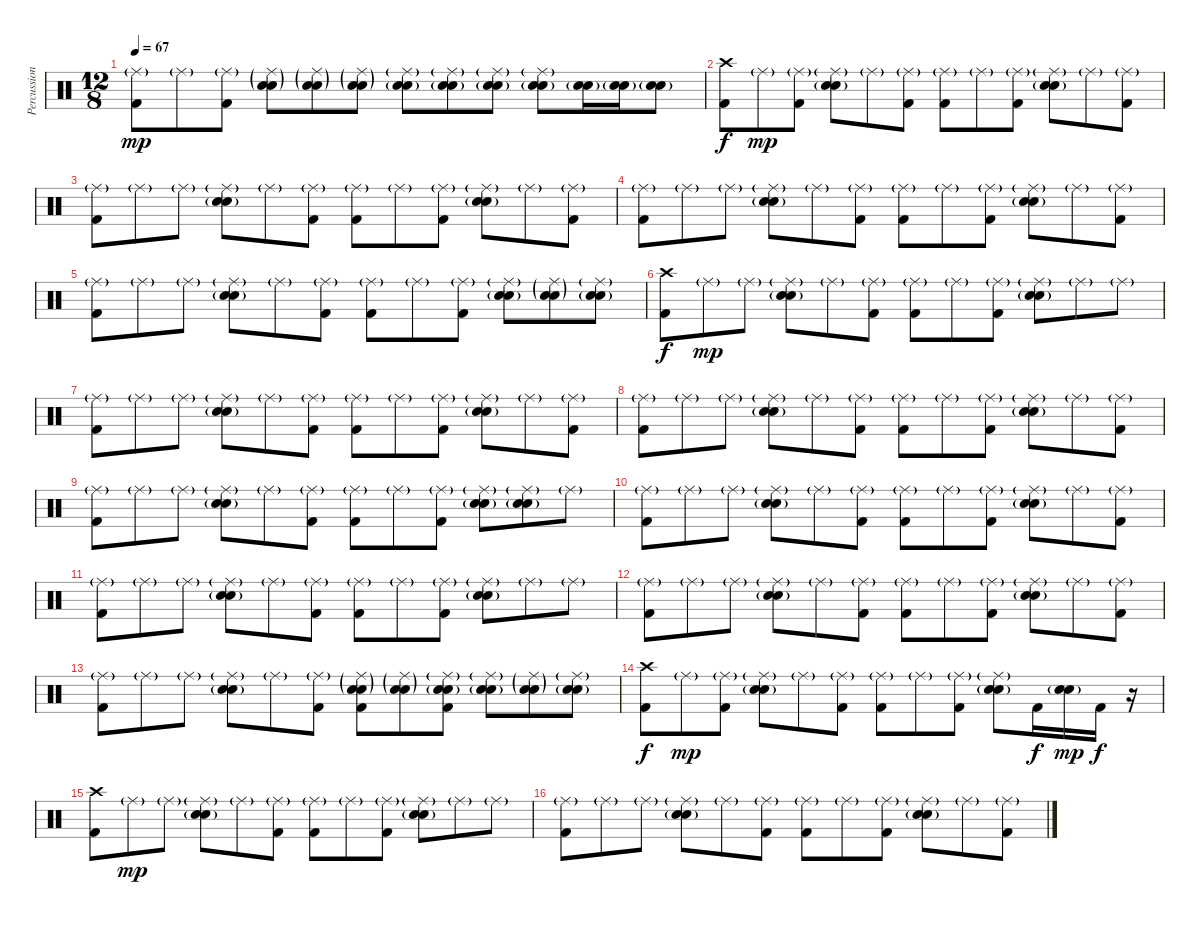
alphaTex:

\track ("Percussion" "Percussion") {instrument percussion}
\staff {score}
\articulation defaults
\ts (12 8)
\tempo 67
\clef neutral
\ks c
("Ride (middle)"{g} "Kick (hit) 2").8{dy mp} "Ride (middle)"{g}.8 ("Ride (middle)"{g} "Kick (hit) 2").8 ("Ride (middle)"{g} "Electric Snare (hit)"{g} "Snare (hit) 2"{g}).8 ("Ride (middle)"{g} "Electric Snare (hit)"{g} "Snare (hit) 2"{g}).8 ("Ride (middle)"{g} "Electric Snare (hit)"{g} "Snare (hit) 2"{g}).8 ("Ride (middle)"{g} "Electric Snare (hit)" "Snare (hit) 2"{g}).8 ("Ride (middle)"{g} "Electric Snare (hit)" "Snare (hit) 2"{g}).8 ("Ride (middle)"{g} "Electric Snare (hit)" "Snare (hit) 2"{g}).8 ("Ride (middle)"{g} "Electric Snare (hit)" "Snare (hit) 2"{g}).8 ("Electric Snare (hit)" "Snare (hit) 2"{g}).16 ("Electric Snare (hit)"{g} "Snare (hit) 2"{g}).16 ("Electric Snare (hit)" "Snare (hit) 2"{g}).8 |
("Crash high (hit)" "Kick (hit) 2").8{dy f} "Ride (middle)"{g}.8{dy mp} ("Ride (middle)"{g} "Kick (hit) 2").8 ("Ride (middle)"{g} "Electric Snare (hit)" "Snare (hit) 2"{g}).8 "Ride (middle)"{g}.8 ("Ride (middle)"{g} "Kick (hit) 2").8 ("Ride (middle)"{g} "Kick (hit) 2").8 "Ride (middle)"{g}.8 ("Ride (middle)"{g} "Kick (hit) 2").8 ("Ride (middle)"{g} "Electric Snare (hit)" "Snare (hit) 2"{g}).8 "Ride (middle)"{g}.8 ("Ride (middle)"{g} "Kick (hit) 2").8 |
("Ride (middle)"{g} "Kick (hit) 2").8 "Ride (middle)"{g}.8 "Ride (middle)"{g}.8 ("Ride (middle)"{g} "Electric Snare (hit)" "Snare (hit) 2"{g}).8 "Ride (middle)"{g}.8 ("Ride (middle)"{g} "Kick (hit) 2").8 ("Ride (middle)"{g} "Kick (hit) 2").8 "Ride (middle)"{g}.8 ("Ride (middle)"{g} "Kick (hit) 2").8 ("Ride (middle)"{g} "Electric Snare (hit)" "Snare (hit) 2"{g}).8 "Ride (middle)"{g}.8 ("Ride (middle)"{g} "Kick (hit) 2").8 |
("Ride (middle)"{g} "Kick (hit) 2").8 "Ride (middle)"{g}.8 "Ride (middle)"{g}.8 ("Ride (middle)"{g} "Electric Snare (hit)" "Snare (hit) 2"{g}).8 "Ride (middle)"{g}.8 ("Ride (middle)"{g} "Kick (hit) 2").8 ("Ride (middle)"{g} "Kick (hit) 2").8 "Ride (middle)"{g}.8 ("Ride (middle)"{g} "Kick (hit) 2").8 ("Ride (middle)"{g} "Electric Snare (hit)" "Snare (hit) 2"{g}).8 "Ride (middle)"{g}.8 ("Ride (middle)"{g} "Kick (hit) 2").8 |
("Ride (middle)"{g} "Kick (hit) 2").8 "Ride (middle)"{g}.8 "Ride (middle)"{g}.8 ("Ride (middle)"{g} "Electric Snare (hit)" "Snare (hit) 2"{g}).8 "Ride (middle)"{g}.8 ("Ride (middle)"{g} "Kick (hit) 2").8 ("Ride (middle)"{g} "Kick (hit) 2").8 "Ride (middle)"{g}.8 ("Ride (middle)"{g} "Kick (hit) 2").8 ("Ride (middle)"{g} "Electric Snare (hit)" "Snare (hit) 2"{g}).8 ("Ride (middle)"{g} "Electric Snare (hit)"{g} "Snare (hit) 2"{g}).8 ("Ride (middle)"{g} "Electric Snare (hit)" "Snare (hit) 2"{g}).8 |
("Crash high (hit)" "Kick (hit) 2").8{dy f} "Ride (middle)"{g}.8{dy mp} "Ride (middle)"{g}.8 ("Ride (middle)"{g} "Electric Snare (hit)" "Snare (hit) 2"{g}).8 "Ride (middle)"{g}.8 ("Ride (middle)"{g} "Kick (hit) 2").8 ("Ride (middle)"{g} "Kick (hit) 2").8 "Ride (middle)"{g}.8 ("Ride (middle)"{g} "Kick (hit) 2").8 ("Ride (middle)"{g} "Electric Snare (hit)" "Snare (hit) 2"{g}).8 "Ride (middle)"{g}.8 "Ride (middle)"{g}.8 |
("Ride (middle)"{g} "Kick (hit) 2").8 "Ride (middle)"{g}.8 "Ride (middle)"{g}.8 ("Ride (middle)"{g} "Electric Snare (hit)" "Snare (hit) 2"{g}).8 "Ride (middle)"{g}.8 ("Ride (middle)"{g} "Kick (hit) 2").8 ("Ride (middle)"{g} "Kick (hit) 2").8 "Ride (middle)"{g}.8 ("Ride (middle)"{g} "Kick (hit) 2").8 ("Ride (middle)"{g} "Electric Snare (hit)" "Snare (hit) 2"{g}).8 "Ride (middle)"{g}.8 ("Ride (middle)"{g} "Kick (hit) 2").8 |
("Ride (middle)"{g} "Kick (hit) 2").8 "Ride (middle)"{g}.8 "Ride (middle)"{g}.8 ("Ride (middle)"{g} "Electric Snare (hit)" "Snare (hit) 2"{g}).8 "Ride (middle)"{g}.8 ("Ride (middle)"{g} "Kick (hit) 2").8 ("Ride (middle)"{g} "Kick (hit) 2").8 "Ride (middle)"{g}.8 ("Ride (middle)"{g} "Kick (hit) 2").8 ("Ride (middle)"{g} "Electric Snare (hit)" "Snare (hit) 2"{g}).8 "Ride (middle)"{g}.8 ("Ride (middle)"{g} "Kick (hit) 2").8 |
("Ride (middle)"{g} "Kick (hit) 2").8 "Ride (middle)"{g}.8 "Ride (middle)"{g}.8 ("Ride (middle)"{g} "Electric Snare (hit)" "Snare (hit) 2"{g}).8 "Ride (middle)"{g}.8 ("Ride (middle)"{g} "Kick (hit) 2").8 ("Ride (middle)"{g} "Kick (hit) 2").8 "Ride (middle)"{g}.8 ("Ride (middle)"{g} "Kick (hit) 2").8 ("Ride (middle)"{g} "Electric Snare (hit)" "Snare (hit) 2"{g}).8 ("Ride (middle)"{g} "Electric Snare (hit)" "Snare (hit) 2"{g}).8 "Ride (middle)"{g}.8 |
("Ride (middle)"{g} "Kick (hit) 2").8 "Ride (middle)"{g}.8 "Ride (middle)"{g}.8 ("Ride (middle)"{g} "Electric Snare (hit)" "Snare (hit) 2"{g}).8 "Ride (middle)"{g}.8 ("Ride (middle)"{g} "Kick (hit) 2").8 ("Ride (middle)"{g} "Kick (hit) 2").8 "Ride (middle)"{g}.8 ("Ride (middle)"{g} "Kick (hit) 2").8 ("Ride (middle)"{g} "Electric Snare (hit)" "Snare (hit) 2"{g}).8 "Ride (middle)"{g}.8 ("Ride (middle)"{g} "Kick (hit) 2").8 |
("Ride (middle)"{g} "Kick (hit) 2").8 "Ride (middle)"{g}.8 "Ride (middle)"{g}.8 ("Ride (middle)"{g} "Electric Snare (hit)" "Snare (hit) 2"{g}).8 "Ride (middle)"{g}.8 ("Ride (middle)"{g} "Kick (hit) 2").8 ("Ride (middle)"{g} "Kick (hit) 2").8 "Ride (middle)"{g}.8 ("Ride (middle)"{g} "Kick (hit) 2").8 ("Ride (middle)"{g} "Electric Snare (hit)" "Snare (hit) 2"{g}).8 "Ride (middle)"{g}.8 "Ride (middle)"{g}.8 |
("Ride (middle)"{g} "Kick (hit) 2").8 "Ride (middle)"{g}.8 "Ride (middle)"{g}.8 ("Ride (middle)"{g} "Electric Snare (hit)" "Snare (hit) 2"{g}).8 "Ride (middle)"{g}.8 ("Ride (middle)"{g} "Kick (hit) 2").8 ("Ride (middle)"{g} "Kick (hit) 2").8 "Ride (middle)"{g}.8 ("Ride (middle)"{g} "Kick (hit) 2").8 ("Ride (middle)"{g} "Electric Snare (hit)" "Snare (hit) 2"{g}).8 "Ride (middle)"{g}.8 ("Ride (middle)"{g} "Kick (hit) 2").8 |
("Ride (middle)"{g} "Kick (hit) 2").8 "Ride (middle)"{g}.8 "Ride (middle)"{g}.8 ("Ride (middle)"{g} "Electric Snare (hit)" "Snare (hit) 2"{g}).8 "Ride (middle)"{g}.8 ("Ride (middle)"{g} "Kick (hit) 2").8 ("Ride (middle)"{g} "Electric Snare (hit)"{g} "Snare (hit) 2"{g} "Kick (hit) 2").8 ("Ride (middle)"{g} "Electric Snare (hit)"{g} "Snare (hit) 2"{g}).8 ("Ride (middle)"{g} "Electric Snare (hit)" "Snare (hit) 2"{g} "Kick (hit) 2").8 ("Ride (middle)"{g} "Electric Snare (hit)" "Snare (hit) 2"{g}).8 ("Ride (middle)"{g} "Electric Snare (hit)"{g} "Snare (hit) 2"{g}).8 ("Ride (middle)"{g} "Electric Snare (hit)" "Snare (hit) 2"{g}).8 |
("Crash high (hit)" "Kick (hit) 2").8{dy f} "Ride (middle)"{g}.8{dy mp} ("Ride (middle)"{g} "Kick (hit) 2").8 ("Ride (middle)"{g} "Electric Snare (hit)" "Snare (hit) 2"{g}).8 "Ride (middle)"{g}.8 ("Ride (middle)"{g} "Kick (hit) 2").8 ("Ride (middle)"{g} "Kick (hit) 2").8 "Ride (middle)"{g}.8 ("Ride (middle)"{g} "Kick (hit) 2").8 ("Ride (middle)"{g} "Electric Snare (hit)" "Snare (hit) 2"{g}).8 "Kick (hit) 2".16{dy f} ("Electric Snare (hit)" "Snare (hit) 2"{g}).16{dy mp} "Kick (hit) 2".16{dy f} r.16 |
("Crash high (hit)" "Kick (hit) 2").8 "Ride (middle)"{g}.8{dy mp} "Ride (middle)"{g}.8 ("Ride (middle)"{g} "Electric Snare (hit)" "Snare (hit) 2"{g}).8 "Ride (middle)"{g}.8 ("Ride (middle)"{g} "Kick (hit) 2").8 ("Ride (middle)"{g} "Kick (hit) 2").8 "Ride (middle)"{g}.8 ("Ride (middle)"{g} "Kick (hit) 2").8 ("Ride (middle)"{g} "Electric Snare (hit)" "Snare (hit) 2"{g}).8 "Ride (middle)"{g}.8 "Ride (middle)"{g}.8 |
("Ride (middle)"{g} "Kick (hit) 2").8 "Ride (middle)"{g}.8 "Ride (middle)"{g}.8 ("Ride (middle)"{g} "Electric Snare (hit)" "Snare (hit) 2"{g}).8 "Ride (middle)"{g}.8 ("Ride (middle)"{g} "Kick (hit) 2").8 ("Ride (middle)"{g} "Kick (hit) 2").8 "Ride (middle)"{g}.8 ("Ride (middle)"{g} "Kick (hit) 2").8 ("Ride (middle)"{g} "Electric Snare (hit)" "Snare (hit) 2"{g}).8 "Ride (middle)"{g}.8 ("Ride (middle)"{g} "Kick (hit) 2").8
